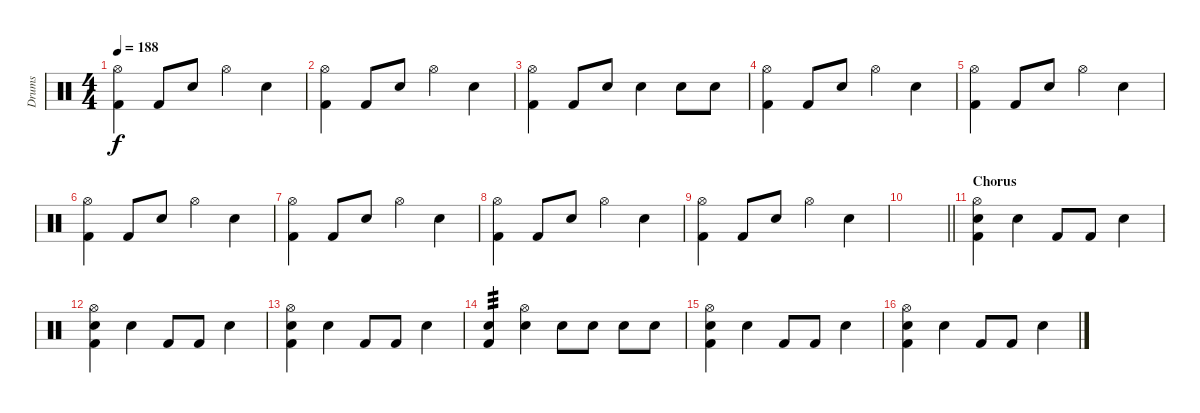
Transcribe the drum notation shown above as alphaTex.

\track ("Drums" "Drums") {instrument percussion}
\staff {score}
\articulation defaults
\ts (4 4)
\tempo 188
\clef neutral
\ks c
("Hi-Hat (open)" "Kick (hit) 2").4{dy f} "Kick (hit) 2".8 "Electric Snare (hit)".8 "Hi-Hat (open)".4 "Electric Snare (hit)".4 |
("Hi-Hat (open)" "Kick (hit) 2").4 "Kick (hit) 2".8 "Electric Snare (hit)".8 "Hi-Hat (open)".4 "Electric Snare (hit)".4 |
("Hi-Hat (open)" "Kick (hit) 2").4 "Kick (hit) 2".8 "Electric Snare (hit)".8 "Electric Snare (hit)".4 "Electric Snare (hit)".8 "Electric Snare (hit)".8 |
("Hi-Hat (open)" "Kick (hit) 2").4 "Kick (hit) 2".8 "Electric Snare (hit)".8 "Hi-Hat (open)".4 "Electric Snare (hit)".4 |
("Hi-Hat (open)" "Kick (hit) 2").4 "Kick (hit) 2".8 "Electric Snare (hit)".8 "Hi-Hat (open)".4 "Electric Snare (hit)".4 |
("Hi-Hat (open)" "Kick (hit) 2").4 "Kick (hit) 2".8 "Electric Snare (hit)".8 "Hi-Hat (open)".4 "Electric Snare (hit)".4 |
("Hi-Hat (open)" "Kick (hit) 2").4 "Kick (hit) 2".8 "Electric Snare (hit)".8 "Hi-Hat (open)".4 "Electric Snare (hit)".4 |
("Hi-Hat (open)" "Kick (hit) 2").4 "Kick (hit) 2".8 "Electric Snare (hit)".8 "Hi-Hat (open)".4 "Electric Snare (hit)".4 |
("Hi-Hat (open)" "Kick (hit) 2").4 "Kick (hit) 2".8 "Electric Snare (hit)".8 "Hi-Hat (open)".4 "Electric Snare (hit)".4 |
\barLineRight lightlight
|
\section ("" "Chorus")
("Hi-Hat (open)" "Electric Snare (hit)" "Kick (hit) 2").4 "Electric Snare (hit)".4 "Kick (hit) 2".8 "Kick (hit) 2".8 "Electric Snare (hit)".4 |
("Hi-Hat (open)" "Electric Snare (hit)" "Kick (hit) 2").4 "Electric Snare (hit)".4 "Kick (hit) 2".8 "Kick (hit) 2".8 "Electric Snare (hit)".4 |
("Hi-Hat (open)" "Electric Snare (hit)" "Kick (hit) 2").4 "Electric Snare (hit)".4 "Kick (hit) 2".8 "Kick (hit) 2".8 "Electric Snare (hit)".4 |
("Electric Snare (hit)" "Kick (hit) 2").4{tp 3} ("Hi-Hat (open)" "Electric Snare (hit)").4 "Electric Snare (hit)".8 "Electric Snare (hit)".8 "Electric Snare (hit)".8 "Electric Snare (hit)".8 |
("Hi-Hat (open)" "Electric Snare (hit)" "Kick (hit) 2").4 "Electric Snare (hit)".4 "Kick (hit) 2".8 "Kick (hit) 2".8 "Electric Snare (hit)".4 |
("Hi-Hat (open)" "Electric Snare (hit)" "Kick (hit) 2").4 "Electric Snare (hit)".4 "Kick (hit) 2".8 "Kick (hit) 2".8 "Electric Snare (hit)".4
